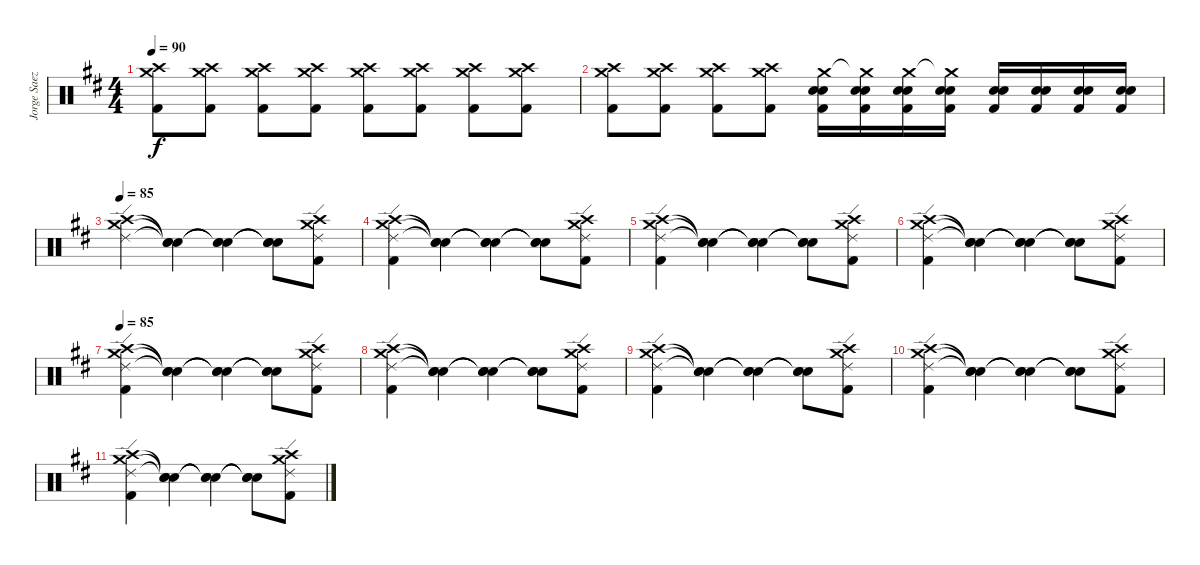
\track ("Jorge Saez - Drums" "Jorge Saez") {instrument percussion}
\staff {score}
\articulation defaults
\ts (4 4)
\tempo 90
\clef neutral
\ks bminor
("Crash medium (hit)" "Crash high (hit)" "Kick (hit) 2").8{dy f} ("Crash medium (hit)" "Crash high (hit)" "Kick (hit) 2").8 ("Crash medium (hit)" "Crash high (hit)" "Kick (hit) 2").8 ("Crash medium (hit)" "Crash high (hit)" "Kick (hit) 2").8 ("Crash medium (hit)" "Crash high (hit)" "Kick (hit) 2").8 ("Crash medium (hit)" "Crash high (hit)" "Kick (hit) 2").8 ("Crash medium (hit)" "Crash high (hit)" "Kick (hit) 2").8 ("Crash medium (hit)" "Crash high (hit)" "Kick (hit) 2").8 |
("Crash medium (hit)" "Crash high (hit)" "Kick (hit) 2").8 ("Crash medium (hit)" "Crash high (hit)" "Kick (hit) 2").8 ("Crash medium (hit)" "Crash high (hit)" "Kick (hit) 2").8 ("Crash medium (hit)" "Crash high (hit)" "Kick (hit) 2").8 ("Crash medium (hit)" "Snare (hit) 2" "Electric Snare (hit)" "Kick (hit) 2").16 ("Crash medium (hit)"{t} "Snare (hit) 2" "Electric Snare (hit)" "Kick (hit) 2").16 ("Crash medium (hit)" "Snare (hit) 2" "Electric Snare (hit)" "Kick (hit) 2").16 ("Crash medium (hit)"{t} "Snare (hit) 2" "Electric Snare (hit)" "Kick (hit) 2").16 ("Snare (hit) 2" "Electric Snare (hit)" "Kick (hit) 2").16 ("Snare (hit) 2" "Electric Snare (hit)" "Kick (hit) 2").16 ("Snare (hit) 2" "Electric Snare (hit)" "Kick (hit) 2").16 ("Snare (hit) 2" "Snare (hit)" "Kick (hit) 2").16 |
\tempo 85
("Ride (edge) 2" "Crash medium (hit)" "Crash high (hit)").4{volume 16} ("Snare (hit)"{t} "Snare (hit)"{t} "Snare (hit)"{t}).4 ("Snare (hit)"{t} "Snare (hit)"{t} "Snare (hit)"{t}).4 ("Snare (hit)"{t} "Snare (hit)"{t} "Snare (hit)"{t}).8 ("Ride (edge) 2" "Crash medium (hit)" "Crash high (hit)" "Kick (hit) 2").8 |
("Ride (edge) 2" "Crash medium (hit)" "Crash high (hit)" "Kick (hit) 2").4 ("Snare (hit)"{t} "Snare (hit)"{t} "Snare (hit)"{t}).4 ("Snare (hit)"{t} "Snare (hit)"{t} "Snare (hit)"{t}).4 ("Snare (hit)"{t} "Snare (hit)"{t} "Snare (hit)"{t}).8 ("Ride (edge) 2" "Crash medium (hit)" "Crash high (hit)" "Kick (hit) 2").8 |
("Ride (edge) 2" "Crash medium (hit)" "Crash high (hit)" "Kick (hit) 2").4 ("Snare (hit)"{t} "Snare (hit)"{t} "Snare (hit)"{t}).4 ("Snare (hit)"{t} "Snare (hit)"{t} "Snare (hit)"{t}).4 ("Snare (hit)"{t} "Snare (hit)"{t} "Snare (hit)"{t}).8 ("Ride (edge) 2" "Crash medium (hit)" "Crash high (hit)" "Kick (hit) 2").8 |
("Ride (edge) 2" "Crash medium (hit)" "Crash high (hit)" "Kick (hit) 2").4 ("Snare (hit)"{t} "Snare (hit)"{t} "Snare (hit)"{t}).4 ("Snare (hit)"{t} "Snare (hit)"{t} "Snare (hit)"{t}).4 ("Snare (hit)"{t} "Snare (hit)"{t} "Snare (hit)"{t}).8 ("Ride (edge) 2" "Crash medium (hit)" "Crash high (hit)" "Kick (hit) 2").8 |
\tempo 85
("Ride (edge) 2" "Crash medium (hit)" "Crash high (hit)" "Kick (hit) 2").4 ("Snare (hit)"{t} "Snare (hit)"{t} "Snare (hit)"{t}).4 ("Snare (hit)"{t} "Snare (hit)"{t} "Snare (hit)"{t}).4 ("Snare (hit)"{t} "Snare (hit)"{t} "Snare (hit)"{t}).8 ("Ride (edge) 2" "Crash medium (hit)" "Crash high (hit)" "Kick (hit) 2").8 |
("Ride (edge) 2" "Crash medium (hit)" "Crash high (hit)" "Kick (hit) 2").4 ("Snare (hit)"{t} "Snare (hit)"{t} "Snare (hit)"{t}).4 ("Snare (hit)"{t} "Snare (hit)"{t} "Snare (hit)"{t}).4 ("Snare (hit)"{t} "Snare (hit)"{t} "Snare (hit)"{t}).8 ("Ride (edge) 2" "Crash medium (hit)" "Crash high (hit)" "Kick (hit) 2").8 |
("Ride (edge) 2" "Crash medium (hit)" "Crash high (hit)" "Kick (hit) 2").4 ("Snare (hit)"{t} "Snare (hit)"{t} "Snare (hit)"{t}).4 ("Snare (hit)"{t} "Snare (hit)"{t} "Snare (hit)"{t}).4 ("Snare (hit)"{t} "Snare (hit)"{t} "Snare (hit)"{t}).8 ("Ride (edge) 2" "Crash medium (hit)" "Crash high (hit)" "Kick (hit) 2").8 |
("Ride (edge) 2" "Crash medium (hit)" "Crash high (hit)" "Kick (hit) 2").4 ("Snare (hit)"{t} "Snare (hit)"{t} "Snare (hit)"{t}).4 ("Snare (hit)"{t} "Snare (hit)"{t} "Snare (hit)"{t}).4 ("Snare (hit)"{t} "Snare (hit)"{t} "Snare (hit)"{t}).8 ("Ride (edge) 2" "Crash medium (hit)" "Crash high (hit)" "Kick (hit) 2").8 |
("Ride (edge) 2" "Crash medium (hit)" "Crash high (hit)" "Kick (hit) 2").4 ("Snare (hit)"{t} "Snare (hit)"{t} "Snare (hit)"{t}).4 ("Snare (hit)"{t} "Snare (hit)"{t} "Snare (hit)"{t}).4 ("Snare (hit)"{t} "Snare (hit)"{t} "Snare (hit)"{t}).8 ("Ride (edge) 2" "Crash medium (hit)" "Crash high (hit)" "Kick (hit) 2").8
